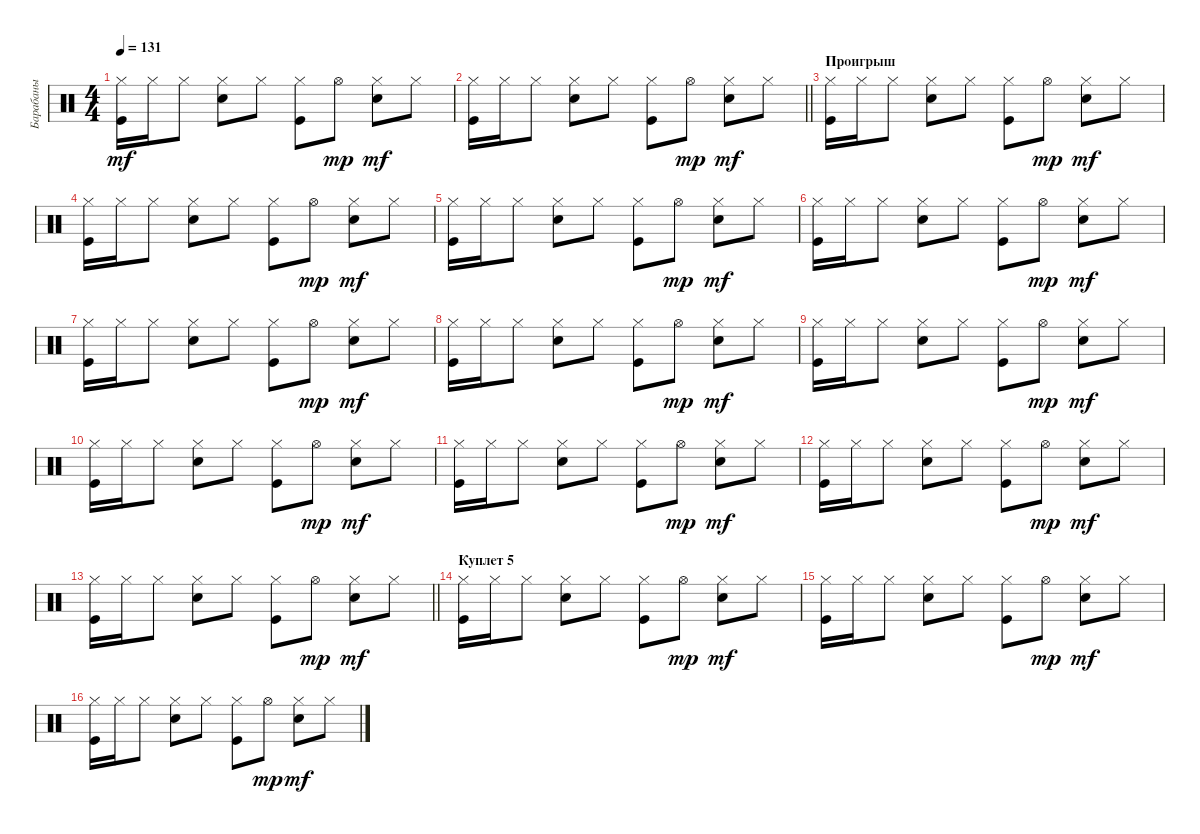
\track ("Барабаны" "Барабаны") {instrument percussion}
\staff {score}
\articulation defaults
\ts (4 4)
\tempo 131
\clef neutral
\ks c
("Kick (hit)" "Hi-Hat (closed)").16{dy mf} "Hi-Hat (closed)".16 "Hi-Hat (closed)".8 ("Snare (hit) 2" "Hi-Hat (closed)").8 "Hi-Hat (closed)".8 ("Kick (hit)" "Hi-Hat (closed)").8 "Hi-Hat (open)".8{dy mp} ("Snare (hit) 2" "Hi-Hat (closed)").8{dy mf} "Hi-Hat (closed)".8 |
\barLineRight lightlight
("Kick (hit)" "Hi-Hat (closed)").16 "Hi-Hat (closed)".16 "Hi-Hat (closed)".8 ("Snare (hit) 2" "Hi-Hat (closed)").8 "Hi-Hat (closed)".8 ("Kick (hit)" "Hi-Hat (closed)").8 "Hi-Hat (open)".8{dy mp} ("Snare (hit) 2" "Hi-Hat (closed)").8{dy mf} "Hi-Hat (closed)".8 |
\section ("" "Проигрыш")
("Kick (hit)" "Hi-Hat (closed)").16 "Hi-Hat (closed)".16 "Hi-Hat (closed)".8 ("Snare (hit) 2" "Hi-Hat (closed)").8 "Hi-Hat (closed)".8 ("Kick (hit)" "Hi-Hat (closed)").8 "Hi-Hat (open)".8{dy mp} ("Snare (hit) 2" "Hi-Hat (closed)").8{dy mf} "Hi-Hat (closed)".8 |
("Kick (hit)" "Hi-Hat (closed)").16 "Hi-Hat (closed)".16 "Hi-Hat (closed)".8 ("Snare (hit) 2" "Hi-Hat (closed)").8 "Hi-Hat (closed)".8 ("Kick (hit)" "Hi-Hat (closed)").8 "Hi-Hat (open)".8{dy mp} ("Snare (hit) 2" "Hi-Hat (closed)").8{dy mf} "Hi-Hat (closed)".8 |
("Kick (hit)" "Hi-Hat (closed)").16 "Hi-Hat (closed)".16 "Hi-Hat (closed)".8 ("Snare (hit) 2" "Hi-Hat (closed)").8 "Hi-Hat (closed)".8 ("Kick (hit)" "Hi-Hat (closed)").8 "Hi-Hat (open)".8{dy mp} ("Snare (hit) 2" "Hi-Hat (closed)").8{dy mf} "Hi-Hat (closed)".8 |
("Kick (hit)" "Hi-Hat (closed)").16 "Hi-Hat (closed)".16 "Hi-Hat (closed)".8 ("Snare (hit) 2" "Hi-Hat (closed)").8 "Hi-Hat (closed)".8 ("Kick (hit)" "Hi-Hat (closed)").8 "Hi-Hat (open)".8{dy mp} ("Snare (hit) 2" "Hi-Hat (closed)").8{dy mf} "Hi-Hat (closed)".8 |
("Kick (hit)" "Hi-Hat (closed)").16 "Hi-Hat (closed)".16 "Hi-Hat (closed)".8 ("Snare (hit) 2" "Hi-Hat (closed)").8 "Hi-Hat (closed)".8 ("Kick (hit)" "Hi-Hat (closed)").8 "Hi-Hat (open)".8{dy mp} ("Snare (hit) 2" "Hi-Hat (closed)").8{dy mf} "Hi-Hat (closed)".8 |
("Kick (hit)" "Hi-Hat (closed)").16 "Hi-Hat (closed)".16 "Hi-Hat (closed)".8 ("Snare (hit) 2" "Hi-Hat (closed)").8 "Hi-Hat (closed)".8 ("Kick (hit)" "Hi-Hat (closed)").8 "Hi-Hat (open)".8{dy mp} ("Snare (hit) 2" "Hi-Hat (closed)").8{dy mf} "Hi-Hat (closed)".8 |
("Kick (hit)" "Hi-Hat (closed)").16 "Hi-Hat (closed)".16 "Hi-Hat (closed)".8 ("Snare (hit) 2" "Hi-Hat (closed)").8 "Hi-Hat (closed)".8 ("Kick (hit)" "Hi-Hat (closed)").8 "Hi-Hat (open)".8{dy mp} ("Snare (hit) 2" "Hi-Hat (closed)").8{dy mf} "Hi-Hat (closed)".8 |
("Kick (hit)" "Hi-Hat (closed)").16 "Hi-Hat (closed)".16 "Hi-Hat (closed)".8 ("Snare (hit) 2" "Hi-Hat (closed)").8 "Hi-Hat (closed)".8 ("Kick (hit)" "Hi-Hat (closed)").8 "Hi-Hat (open)".8{dy mp} ("Snare (hit) 2" "Hi-Hat (closed)").8{dy mf} "Hi-Hat (closed)".8 |
("Kick (hit)" "Hi-Hat (closed)").16 "Hi-Hat (closed)".16 "Hi-Hat (closed)".8 ("Snare (hit) 2" "Hi-Hat (closed)").8 "Hi-Hat (closed)".8 ("Kick (hit)" "Hi-Hat (closed)").8 "Hi-Hat (open)".8{dy mp} ("Snare (hit) 2" "Hi-Hat (closed)").8{dy mf} "Hi-Hat (closed)".8 |
("Kick (hit)" "Hi-Hat (closed)").16 "Hi-Hat (closed)".16 "Hi-Hat (closed)".8 ("Snare (hit) 2" "Hi-Hat (closed)").8 "Hi-Hat (closed)".8 ("Kick (hit)" "Hi-Hat (closed)").8 "Hi-Hat (open)".8{dy mp} ("Snare (hit) 2" "Hi-Hat (closed)").8{dy mf} "Hi-Hat (closed)".8 |
\barLineRight lightlight
("Kick (hit)" "Hi-Hat (closed)").16 "Hi-Hat (closed)".16 "Hi-Hat (closed)".8 ("Snare (hit) 2" "Hi-Hat (closed)").8 "Hi-Hat (closed)".8 ("Kick (hit)" "Hi-Hat (closed)").8 "Hi-Hat (open)".8{dy mp} ("Snare (hit) 2" "Hi-Hat (closed)").8{dy mf} "Hi-Hat (closed)".8 |
\section ("" "Куплет 5")
("Kick (hit)" "Hi-Hat (closed)").16 "Hi-Hat (closed)".16 "Hi-Hat (closed)".8 ("Snare (hit) 2" "Hi-Hat (closed)").8 "Hi-Hat (closed)".8 ("Kick (hit)" "Hi-Hat (closed)").8 "Hi-Hat (open)".8{dy mp} ("Snare (hit) 2" "Hi-Hat (closed)").8{dy mf} "Hi-Hat (closed)".8 |
("Kick (hit)" "Hi-Hat (closed)").16 "Hi-Hat (closed)".16 "Hi-Hat (closed)".8 ("Snare (hit) 2" "Hi-Hat (closed)").8 "Hi-Hat (closed)".8 ("Kick (hit)" "Hi-Hat (closed)").8 "Hi-Hat (open)".8{dy mp} ("Snare (hit) 2" "Hi-Hat (closed)").8{dy mf} "Hi-Hat (closed)".8 |
("Kick (hit)" "Hi-Hat (closed)").16 "Hi-Hat (closed)".16 "Hi-Hat (closed)".8 ("Snare (hit) 2" "Hi-Hat (closed)").8 "Hi-Hat (closed)".8 ("Kick (hit)" "Hi-Hat (closed)").8 "Hi-Hat (open)".8{dy mp} ("Snare (hit) 2" "Hi-Hat (closed)").8{dy mf} "Hi-Hat (closed)".8
